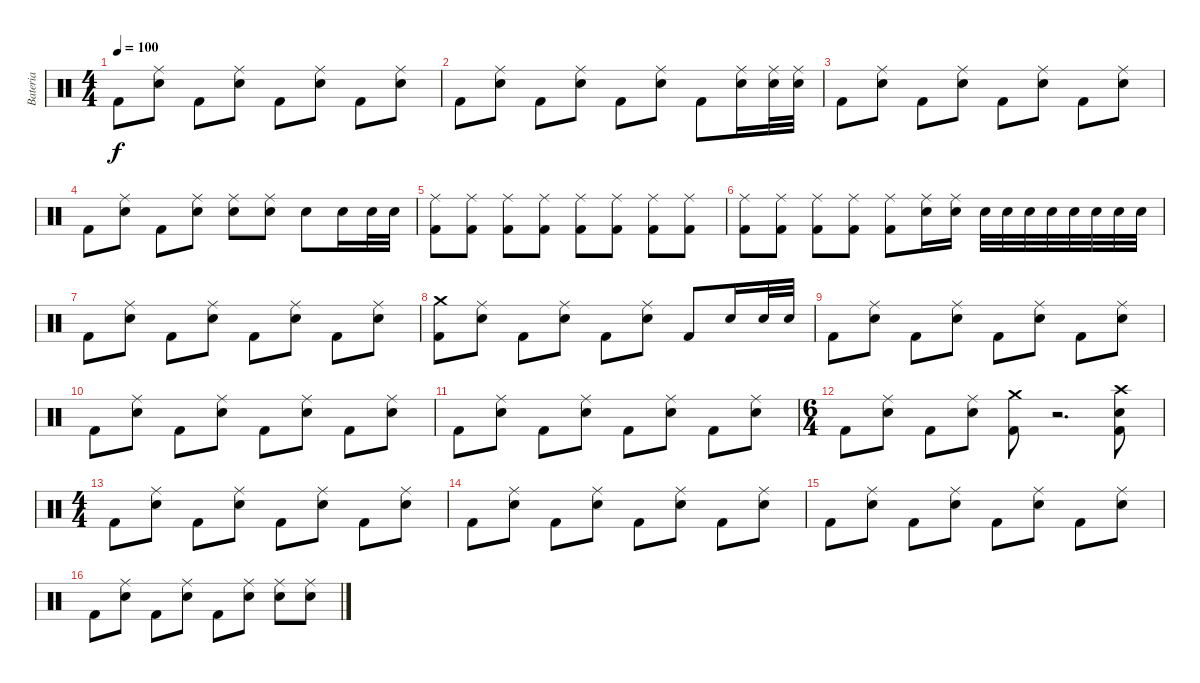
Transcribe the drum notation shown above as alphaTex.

\track ("Bateria" "Bateria") {instrument percussion}
\staff {score}
\articulation defaults
\ts (4 4)
\tempo 100
\clef neutral
\ks c "Kick (hit) 2".8{dy f}
("Ride (middle)" "Snare (hit) 2").8 "Kick (hit) 2".8 ("Ride (middle)" "Snare (hit) 2").8 "Kick (hit) 2".8 ("Ride (middle)" "Snare (hit) 2").8 "Kick (hit) 2".8 ("Ride (middle)" "Snare (hit) 2").8 |
"Kick (hit) 2".8 ("Ride (middle)" "Snare (hit) 2").8 "Kick (hit) 2".8 ("Ride (middle)" "Snare (hit) 2").8 "Kick (hit) 2".8 ("Ride (middle)" "Snare (hit) 2").8 "Kick (hit) 2".8 ("Ride (middle)" "Snare (hit) 2").16 ("Ride (middle)" "Snare (hit) 2").32 ("Ride (middle)" "Snare (hit) 2").32 |
"Kick (hit) 2".8 ("Ride (middle)" "Snare (hit) 2").8 "Kick (hit) 2".8 ("Ride (middle)" "Snare (hit) 2").8 "Kick (hit) 2".8 ("Ride (middle)" "Snare (hit) 2").8 "Kick (hit) 2".8 ("Ride (middle)" "Snare (hit) 2").8 |
"Kick (hit) 2".8 ("Ride (middle)" "Snare (hit) 2").8 "Kick (hit) 2".8 ("Ride (middle)" "Snare (hit) 2").8 ("Ride (middle)" "Snare (hit) 2").8 ("Ride (middle)" "Snare (hit) 2").8 "Snare (hit) 2".8 "Snare (hit) 2".16 "Snare (hit) 2".32 "Snare (hit) 2".32 |
("Kick (hit) 2" "Ride (middle)").8 ("Kick (hit) 2" "Ride (middle)").8 ("Kick (hit) 2" "Ride (middle)").8 ("Kick (hit) 2" "Ride (middle)").8 ("Kick (hit) 2" "Ride (middle)").8 ("Kick (hit) 2" "Ride (middle)").8 ("Kick (hit) 2" "Ride (middle)").8 ("Kick (hit) 2" "Ride (middle)").8 |
("Ride (middle)" "Kick (hit) 2").8 ("Ride (middle)" "Kick (hit) 2").8 ("Ride (middle)" "Kick (hit) 2").8 ("Ride (middle)" "Kick (hit) 2").8 ("Kick (hit) 2" "Ride (middle)").8 ("Ride (middle)" "Snare (hit) 2").16 ("Ride (middle)" "Snare (hit) 2").16 "Snare (hit) 2".32 "Snare (hit) 2".32 "Snare (hit) 2".32 "Snare (hit) 2".32 "Snare (hit) 2".32 "Snare (hit) 2".32 "Snare (hit) 2".32 "Snare (hit) 2".32 |
"Kick (hit) 2".8 ("Ride (middle)" "Snare (hit) 2").8 "Kick (hit) 2".8 ("Ride (middle)" "Snare (hit) 2").8 "Kick (hit) 2".8 ("Ride (middle)" "Snare (hit) 2").8 "Kick (hit) 2".8 ("Ride (middle)" "Snare (hit) 2").8 |
("Crash medium (hit)" "Kick (hit) 2").8 ("Ride (middle)" "Snare (hit) 2").8 "Kick (hit) 2".8 ("Ride (middle)" "Snare (hit) 2").8 "Kick (hit) 2".8 ("Ride (middle)" "Snare (hit) 2").8 "Kick (hit) 2".8 "Snare (hit) 2".16 "Snare (hit) 2".32 "Snare (hit) 2".32 |
"Kick (hit) 2".8 ("Ride (middle)" "Snare (hit) 2").8 "Kick (hit) 2".8 ("Ride (middle)" "Snare (hit) 2").8 "Kick (hit) 2".8 ("Ride (middle)" "Snare (hit) 2").8 "Kick (hit) 2".8 ("Ride (middle)" "Snare (hit) 2").8 |
"Kick (hit) 2".8 ("Ride (middle)" "Snare (hit) 2").8 "Kick (hit) 2".8 ("Ride (middle)" "Snare (hit) 2").8 "Kick (hit) 2".8 ("Ride (middle)" "Snare (hit) 2").8 "Kick (hit) 2".8 ("Ride (middle)" "Snare (hit) 2").8 |
"Kick (hit) 2".8 ("Ride (middle)" "Snare (hit) 2").8 "Kick (hit) 2".8 ("Ride (middle)" "Snare (hit) 2").8 "Kick (hit) 2".8 ("Ride (middle)" "Snare (hit) 2").8 "Kick (hit) 2".8 ("Ride (middle)" "Snare (hit) 2").8 |
\ts (6 4)
"Kick (hit) 2".8 ("Ride (middle)" "Snare (hit) 2").8 "Kick (hit) 2".8 ("Ride (middle)" "Snare (hit) 2").8 ("Crash medium (hit)" "Kick (hit) 2").8 r.2{d} ("Crash high (hit)" "Kick (hit) 2" "Snare (hit) 2").8 |
\ts (4 4)
"Kick (hit) 2".8 ("Ride (middle)" "Snare (hit) 2").8 "Kick (hit) 2".8 ("Ride (middle)" "Snare (hit) 2").8 "Kick (hit) 2".8 ("Ride (middle)" "Snare (hit) 2").8 "Kick (hit) 2".8 ("Ride (middle)" "Snare (hit) 2").8 |
"Kick (hit) 2".8 ("Ride (middle)" "Snare (hit) 2").8 "Kick (hit) 2".8 ("Ride (middle)" "Snare (hit) 2").8 "Kick (hit) 2".8 ("Ride (middle)" "Snare (hit) 2").8 "Kick (hit) 2".8 ("Ride (middle)" "Snare (hit) 2").8 |
"Kick (hit) 2".8 ("Ride (middle)" "Snare (hit) 2").8 "Kick (hit) 2".8 ("Ride (middle)" "Snare (hit) 2").8 "Kick (hit) 2".8 ("Ride (middle)" "Snare (hit) 2").8 "Kick (hit) 2".8 ("Ride (middle)" "Snare (hit) 2").8 |
"Kick (hit) 2".8 ("Ride (middle)" "Snare (hit) 2").8 "Kick (hit) 2".8 ("Ride (middle)" "Snare (hit) 2").8 "Kick (hit) 2".8 ("Ride (middle)" "Snare (hit) 2").8 ("Ride (middle)" "Snare (hit) 2").8 ("Ride (middle)" "Snare (hit) 2").8
